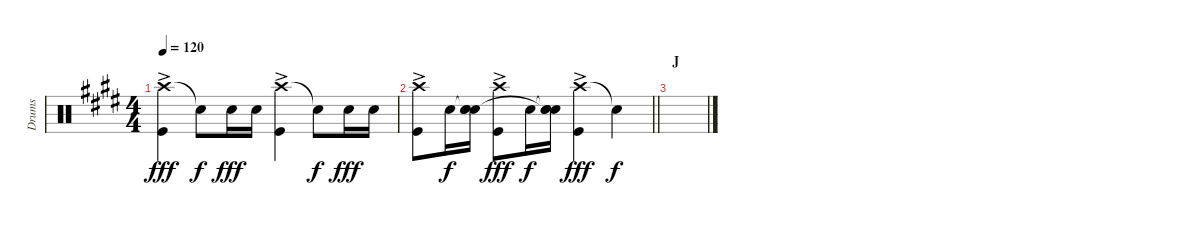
\track ("Drums" "Drums") {instrument percussion}
\staff {score}
\articulation defaults
\ts (4 4)
\tempo 120
\clef neutral
\ks e
("Crash high (hit)"{ac} "Kick (hit)").4{dy fff} "Snare (hit)"{t}.8{dy f} "Snare (hit) 2".16{dy fff} "Snare (hit) 2".16 ("Crash high (hit)"{ac} "Kick (hit)").4 "Snare (hit)"{t}.8{dy f} "Snare (hit) 2".16{dy fff} "Snare (hit) 2".16 |
\barLineRight lightlight
("Crash high (hit)"{ac} "Kick (hit)").8 "Snare (hit) 2".16{dy f} ("Snare (hit)"{t} "Snare (hit) 2" "Snare (hit)"{t}).16 ("Crash high (hit)"{ac} "Kick (hit)").8{dy fff} "Snare (hit) 2".16{dy f} ("Snare (hit)"{t} "Snare (hit) 2" "Snare (hit)"{t}).16 ("Crash high (hit)"{ac} "Kick (hit)").4{dy fff} "Snare (hit)"{t}.4{dy f} |
\section ("" "J")
